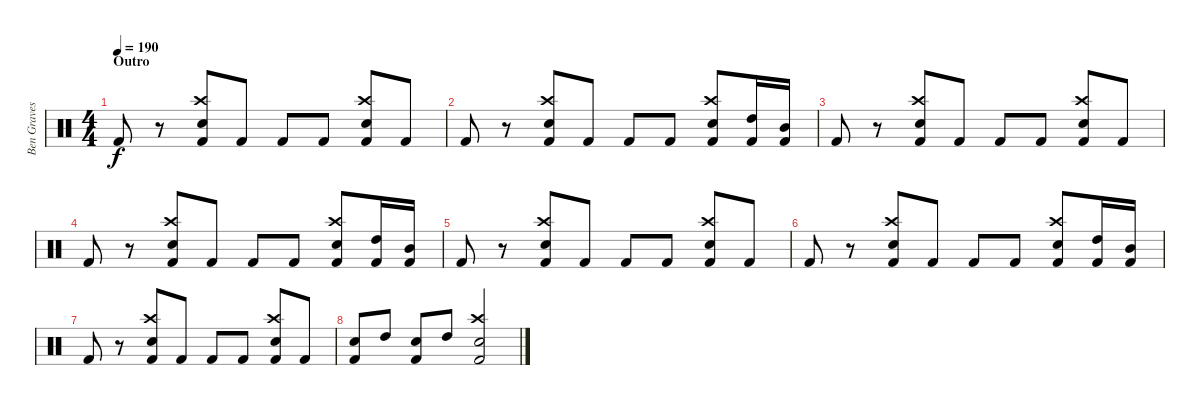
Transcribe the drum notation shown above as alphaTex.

\track ("Ben Graves" "Ben Graves") {instrument percussion}
\staff {score}
\articulation defaults
\ts (4 4)
\section ("" "Outro")
\tempo 190
\clef neutral
\ks c "Kick (hit) 2".8{dy f}
r.8 ("Crash high (hit)" "Electric Snare (hit)" "Kick (hit) 2").8 "Kick (hit) 2".8 "Kick (hit) 2".8 "Kick (hit) 2".8 ("Crash high (hit)" "Electric Snare (hit)" "Kick (hit) 2").8 "Kick (hit) 2".8 |
"Kick (hit) 2".8 r.8 ("Crash high (hit)" "Electric Snare (hit)" "Kick (hit) 2").8 "Kick (hit) 2".8 "Kick (hit) 2".8 "Kick (hit) 2".8 ("Crash high (hit)" "Electric Snare (hit)" "Kick (hit) 2").8 ("High Tom (hit)" "Kick (hit) 2").16 ("Mid Tom (hit)" "Kick (hit) 2").16 |
"Kick (hit) 2".8 r.8 ("Crash high (hit)" "Electric Snare (hit)" "Kick (hit) 2").8 "Kick (hit) 2".8 "Kick (hit) 2".8 "Kick (hit) 2".8 ("Crash high (hit)" "Electric Snare (hit)" "Kick (hit) 2").8 "Kick (hit) 2".8 |
"Kick (hit) 2".8 r.8 ("Crash high (hit)" "Electric Snare (hit)" "Kick (hit) 2").8 "Kick (hit) 2".8 "Kick (hit) 2".8 "Kick (hit) 2".8 ("Crash high (hit)" "Electric Snare (hit)" "Kick (hit) 2").8 ("High Tom (hit)" "Kick (hit) 2").16 ("Mid Tom (hit)" "Kick (hit) 2").16 |
"Kick (hit) 2".8 r.8 ("Crash high (hit)" "Electric Snare (hit)" "Kick (hit) 2").8 "Kick (hit) 2".8 "Kick (hit) 2".8 "Kick (hit) 2".8 ("Crash high (hit)" "Electric Snare (hit)" "Kick (hit) 2").8 "Kick (hit) 2".8 |
"Kick (hit) 2".8 r.8 ("Crash high (hit)" "Electric Snare (hit)" "Kick (hit) 2").8 "Kick (hit) 2".8 "Kick (hit) 2".8 "Kick (hit) 2".8 ("Crash high (hit)" "Electric Snare (hit)" "Kick (hit) 2").8 ("High Tom (hit)" "Kick (hit) 2").16 ("Mid Tom (hit)" "Kick (hit) 2").16 |
"Kick (hit) 2".8 r.8 ("Crash high (hit)" "Electric Snare (hit)" "Kick (hit) 2").8 "Kick (hit) 2".8 "Kick (hit) 2".8 "Kick (hit) 2".8 ("Crash high (hit)" "Electric Snare (hit)" "Kick (hit) 2").8 "Kick (hit) 2".8 |
("Electric Snare (hit)" "Kick (hit) 2").8 "High Tom (hit)".8 ("Electric Snare (hit)" "Kick (hit) 2").8 "High Tom (hit)".8 ("Crash high (hit)" "Electric Snare (hit)" "Kick (hit) 2").2
